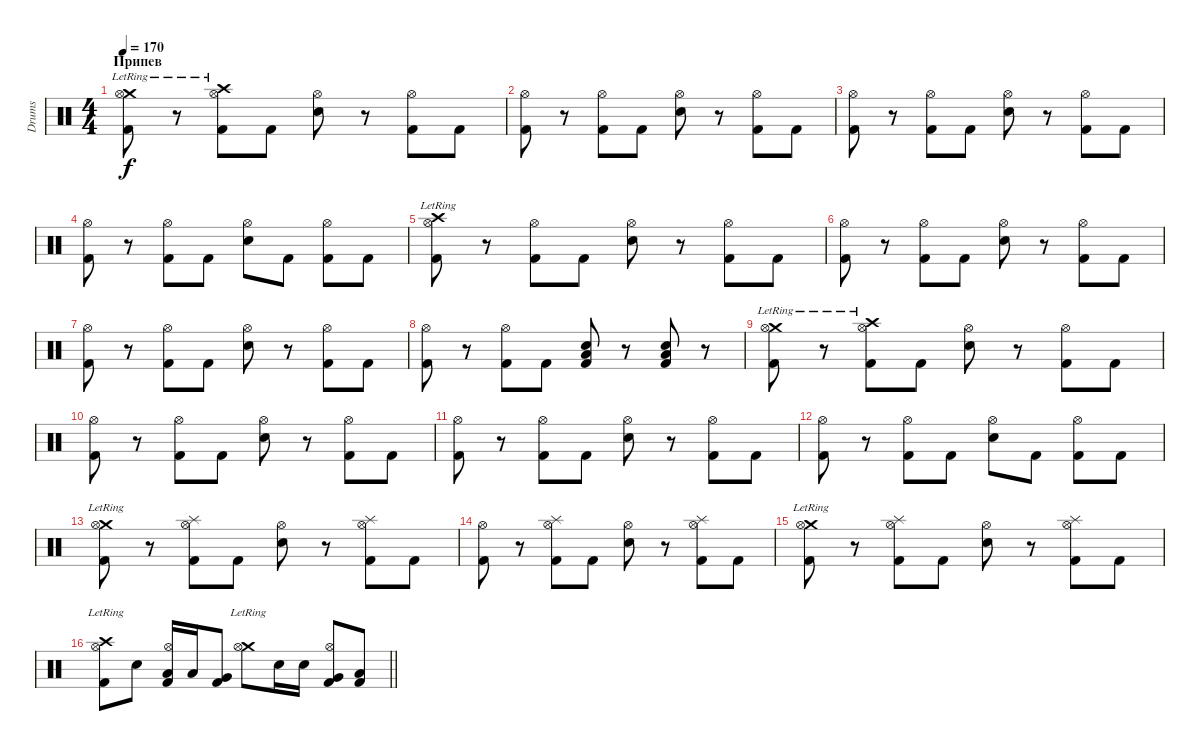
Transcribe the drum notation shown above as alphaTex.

\track ("Drums" "Drums") {instrument percussion}
\staff {score}
\articulation defaults
\ts (4 4)
\section ("" "Припев")
\tempo 170
\clef neutral
\ks c
("Crash medium (hit)"{lr} "Kick (hit) 2" "Hi-Hat (open)").8{dy f} r.8 ("Crash high (hit)"{lr} "Kick (hit) 2" "Hi-Hat (open)").8 "Kick (hit) 2".8 ("Electric Snare (hit)" "Hi-Hat (open)").8 r.8 ("Kick (hit) 2" "Hi-Hat (open)").8 "Kick (hit) 2".8 |
("Kick (hit) 2" "Hi-Hat (open)").8 r.8 ("Kick (hit) 2" "Hi-Hat (open)").8 "Kick (hit) 2".8 ("Electric Snare (hit)" "Hi-Hat (open)").8 r.8 ("Kick (hit) 2" "Hi-Hat (open)").8 "Kick (hit) 2".8 |
("Kick (hit) 2" "Hi-Hat (open)").8 r.8 ("Kick (hit) 2" "Hi-Hat (open)").8 "Kick (hit) 2".8 ("Electric Snare (hit)" "Hi-Hat (open)").8 r.8 ("Kick (hit) 2" "Hi-Hat (open)").8 "Kick (hit) 2".8 |
("Kick (hit) 2" "Hi-Hat (open)").8 r.8 ("Kick (hit) 2" "Hi-Hat (open)").8 "Kick (hit) 2".8 ("Electric Snare (hit)" "Hi-Hat (open)").8 "Kick (hit) 2".8 ("Kick (hit) 2" "Hi-Hat (open)").8 "Kick (hit) 2".8 |
("Crash high (hit)"{lr} "Kick (hit) 2" "Hi-Hat (open)").8 r.8 ("Kick (hit) 2" "Hi-Hat (open)").8 "Kick (hit) 2".8 ("Electric Snare (hit)" "Hi-Hat (open)").8 r.8 ("Kick (hit) 2" "Hi-Hat (open)").8 "Kick (hit) 2".8 |
("Kick (hit) 2" "Hi-Hat (open)").8 r.8 ("Kick (hit) 2" "Hi-Hat (open)").8 "Kick (hit) 2".8 ("Electric Snare (hit)" "Hi-Hat (open)").8 r.8 ("Kick (hit) 2" "Hi-Hat (open)").8 "Kick (hit) 2".8 |
("Kick (hit) 2" "Hi-Hat (open)").8 r.8 ("Kick (hit) 2" "Hi-Hat (open)").8 "Kick (hit) 2".8 ("Electric Snare (hit)" "Hi-Hat (open)").8 r.8 ("Kick (hit) 2" "Hi-Hat (open)").8 "Kick (hit) 2".8 |
("Kick (hit) 2" "Hi-Hat (open)").8 r.8 ("Kick (hit) 2" "Hi-Hat (open)").8 "Kick (hit) 2".8 ("Electric Snare (hit)" "Kick (hit) 2" "Low Floor Tom (hit)").8 r.8 ("Electric Snare (hit)" "Kick (hit) 2" "Low Floor Tom (hit)").8 r.8 |
("Crash medium (hit)"{lr} "Kick (hit) 2" "Hi-Hat (open)").8 r.8 ("Crash high (hit)"{lr} "Kick (hit) 2" "Hi-Hat (open)").8 "Kick (hit) 2".8 ("Electric Snare (hit)" "Hi-Hat (open)").8 r.8 ("Kick (hit) 2" "Hi-Hat (open)").8 "Kick (hit) 2".8 |
("Kick (hit) 2" "Hi-Hat (open)").8 r.8 ("Kick (hit) 2" "Hi-Hat (open)").8 "Kick (hit) 2".8 ("Electric Snare (hit)" "Hi-Hat (open)").8 r.8 ("Kick (hit) 2" "Hi-Hat (open)").8 "Kick (hit) 2".8 |
("Kick (hit) 2" "Hi-Hat (open)").8 r.8 ("Kick (hit) 2" "Hi-Hat (open)").8 "Kick (hit) 2".8 ("Electric Snare (hit)" "Hi-Hat (open)").8 r.8 ("Kick (hit) 2" "Hi-Hat (open)").8 "Kick (hit) 2".8 |
("Kick (hit) 2" "Hi-Hat (open)").8 r.8 ("Kick (hit) 2" "Hi-Hat (open)").8 "Kick (hit) 2".8 ("Electric Snare (hit)" "Hi-Hat (open)").8 "Kick (hit) 2".8 ("Kick (hit) 2" "Hi-Hat (open)").8 "Kick (hit) 2".8 |
("Crash medium (hit)"{lr} "Kick (hit) 2" "Hi-Hat (open)").8 r.8 ("Splash (hit)" "Kick (hit) 2" "Hi-Hat (open)").8 "Kick (hit) 2".8 ("Electric Snare (hit)" "Hi-Hat (open)").8 r.8 ("Splash (hit)" "Kick (hit) 2" "Hi-Hat (open)").8 "Kick (hit) 2".8 |
("Kick (hit) 2" "Hi-Hat (open)").8 r.8 ("Splash (hit)" "Kick (hit) 2" "Hi-Hat (open)").8 "Kick (hit) 2".8 ("Electric Snare (hit)" "Hi-Hat (open)").8 r.8 ("Splash (hit)" "Kick (hit) 2" "Hi-Hat (open)").8 "Kick (hit) 2".8 |
("Crash medium (hit)"{lr} "Kick (hit) 2" "Hi-Hat (open)").8 r.8 ("Splash (hit)" "Kick (hit) 2" "Hi-Hat (open)").8 "Kick (hit) 2".8 ("Electric Snare (hit)" "Hi-Hat (open)").8 r.8 ("Splash (hit)" "Kick (hit) 2" "Hi-Hat (open)").8 "Kick (hit) 2".8 |
\barLineRight lightlight
("Crash high (hit)"{lr} "Kick (hit) 2" "Hi-Hat (open)").8 "Electric Snare (hit)".8 ("Low Tom (hit)" "Kick (hit) 2" "Hi-Hat (open)").16 "Low Tom (hit)".16 ("Very Low Tom (hit)" "Kick (hit) 2").8 ("Crash medium (hit)"{lr} "Hi-Hat (open)").8 "Electric Snare (hit)".16 "Electric Snare (hit)".16 ("Very Low Tom (hit)" "Kick (hit) 2" "Hi-Hat (open)").8 ("Low Floor Tom (hit)" "Kick (hit) 2").8
